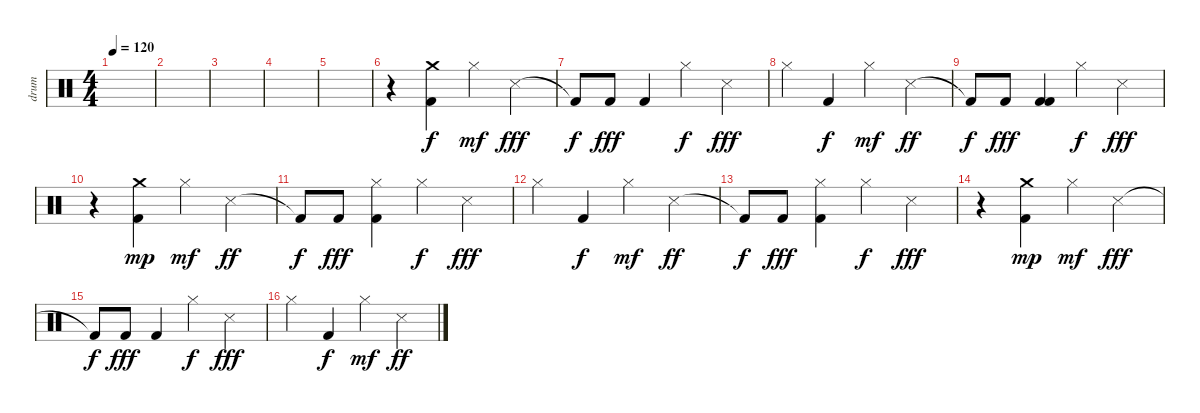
\track ("drum" "drum") {instrument percussion}
\staff {score}
\articulation defaults
\ts (4 4)
\tempo 120
\clef neutral
\ks c
|
|
|
|
|
r.4 ("Crash medium (hit)" "Kick (hit) 2").4 "Hi-Hat (closed)".4{dy mf} "Metronome (hit)".4{dy fff} |
"Kick (hit) 2"{t}.8{dy f} "Kick (hit) 2".8{dy fff} "Kick (hit) 2".4 "Hi-Hat (closed)".4{dy f} "Metronome (hit)".4{dy fff} |
"Hi-Hat (closed)".4 "Kick (hit) 2".4{dy f} "Hi-Hat (closed)".4{dy mf} "Metronome (hit)".4{dy ff} |
"Kick (hit) 2"{t}.8{dy f} "Kick (hit) 2".8{dy fff} ("Kick (hit) 2" "Kick (hit) 2").4 "Hi-Hat (closed)".4{dy f} "Metronome (hit)".4{dy fff} |
r.4 ("Crash medium (hit)" "Kick (hit) 2").4{dy mp} "Hi-Hat (closed)".4{dy mf} "Metronome (hit)".4{dy ff} |
"Kick (hit) 2"{t}.8{dy f} "Kick (hit) 2".8{dy fff} ("Hi-Hat (closed)" "Kick (hit) 2").4 "Hi-Hat (closed)".4{dy f} "Metronome (hit)".4{dy fff} |
"Hi-Hat (closed)".4 "Kick (hit) 2".4{dy f} "Hi-Hat (closed)".4{dy mf} "Metronome (hit)".4{dy ff} |
"Kick (hit) 2"{t}.8{dy f} "Kick (hit) 2".8{dy fff} ("Hi-Hat (closed)" "Kick (hit) 2").4 "Hi-Hat (closed)".4{dy f} "Metronome (hit)".4{dy fff} |
r.4 ("Crash medium (hit)" "Kick (hit) 2").4{dy mp} "Hi-Hat (closed)".4{dy mf} "Metronome (hit)".4{dy fff} |
"Kick (hit) 2"{t}.8{dy f} "Kick (hit) 2".8{dy fff} "Kick (hit) 2".4 "Hi-Hat (closed)".4{dy f} "Metronome (hit)".4{dy fff} |
"Hi-Hat (closed)".4 "Kick (hit) 2".4{dy f} "Hi-Hat (closed)".4{dy mf} "Metronome (hit)".4{dy ff}
